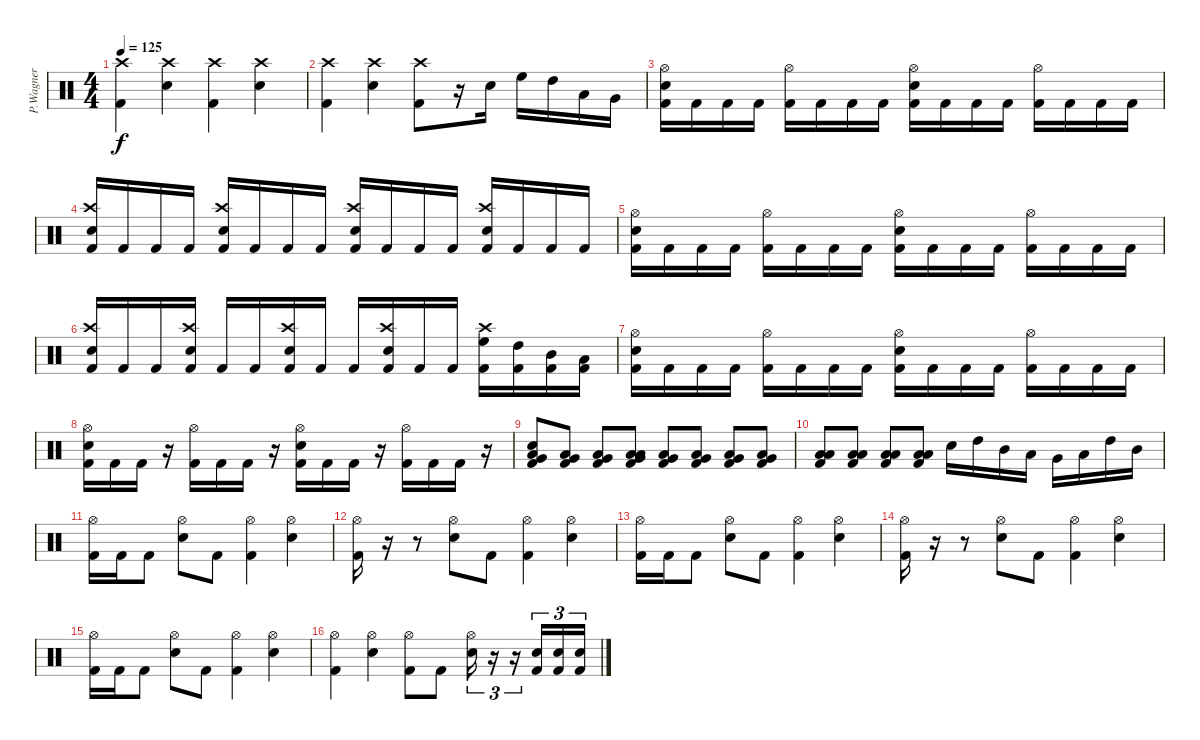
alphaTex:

\track ("P.Wagner" "P.Wagner") {instrument percussion}
\staff {score}
\articulation defaults
\ts (4 4)
\tempo 125
\clef neutral
\ks c
("Kick (hit) 2" "Crash high (hit)").4{dy f} ("Electric Snare (hit)" "Crash high (hit)").4 ("Kick (hit) 2" "Crash high (hit)").4 ("Electric Snare (hit)" "Crash high (hit)").4 |
("Kick (hit) 2" "Crash high (hit)").4 ("Electric Snare (hit)" "Crash high (hit)").4 ("Kick (hit) 2" "Crash high (hit)").8 r.16 "Electric Snare (hit)".16 "High Floor Tom (hit)".16 "High Tom (hit)".16 "Low Tom (hit)".16 "Very Low Tom (hit)".16 |
("Kick (hit) 2" "Electric Snare (hit)" "Hi-Hat (open)").16 "Kick (hit) 2".16 "Kick (hit) 2".16 "Kick (hit) 2".16 ("Kick (hit) 2" "Hi-Hat (open)").16 "Kick (hit) 2".16 "Kick (hit) 2".16 "Kick (hit) 2".16 ("Kick (hit) 2" "Electric Snare (hit)" "Hi-Hat (open)").16 "Kick (hit) 2".16 "Kick (hit) 2".16 "Kick (hit) 2".16 ("Kick (hit) 2" "Hi-Hat (open)").16 "Kick (hit) 2".16 "Kick (hit) 2".16 "Kick (hit) 2".16 |
("Kick (hit) 2" "Electric Snare (hit)" "Crash high (hit)").16 "Kick (hit) 2".16 "Kick (hit) 2".16 "Kick (hit) 2".16 ("Kick (hit) 2" "Electric Snare (hit)" "Crash high (hit)").16 "Kick (hit) 2".16 "Kick (hit) 2".16 "Kick (hit) 2".16 ("Kick (hit) 2" "Electric Snare (hit)" "Crash high (hit)").16 "Kick (hit) 2".16 "Kick (hit) 2".16 "Kick (hit) 2".16 ("Kick (hit) 2" "Electric Snare (hit)" "Crash high (hit)").16 "Kick (hit) 2".16 "Kick (hit) 2".16 "Kick (hit) 2".16 |
("Kick (hit) 2" "Electric Snare (hit)" "Hi-Hat (open)").16 "Kick (hit) 2".16 "Kick (hit) 2".16 "Kick (hit) 2".16 ("Kick (hit) 2" "Hi-Hat (open)").16 "Kick (hit) 2".16 "Kick (hit) 2".16 "Kick (hit) 2".16 ("Kick (hit) 2" "Electric Snare (hit)" "Hi-Hat (open)").16 "Kick (hit) 2".16 "Kick (hit) 2".16 "Kick (hit) 2".16 ("Kick (hit) 2" "Hi-Hat (open)").16 "Kick (hit) 2".16 "Kick (hit) 2".16 "Kick (hit) 2".16 |
("Kick (hit) 2" "Electric Snare (hit)" "Crash high (hit)").16 "Kick (hit) 2".16 "Kick (hit) 2".16 ("Kick (hit) 2" "Electric Snare (hit)" "Crash high (hit)").16 "Kick (hit) 2".16 "Kick (hit) 2".16 ("Kick (hit) 2" "Electric Snare (hit)" "Crash high (hit)").16 "Kick (hit) 2".16 "Kick (hit) 2".16 ("Kick (hit) 2" "Electric Snare (hit)" "Crash high (hit)").16 "Kick (hit) 2".16 "Kick (hit) 2".16 ("Kick (hit) 2" "High Floor Tom (hit)" "Crash high (hit)").16 ("Kick (hit) 2" "High Tom (hit)").16 ("Kick (hit) 2" "Mid Tom (hit)").16 ("Kick (hit) 2" "Low Tom (hit)").16 |
("Kick (hit) 2" "Electric Snare (hit)" "Hi-Hat (open)").16 "Kick (hit) 2".16 "Kick (hit) 2".16 "Kick (hit) 2".16 ("Kick (hit) 2" "Hi-Hat (open)").16 "Kick (hit) 2".16 "Kick (hit) 2".16 "Kick (hit) 2".16 ("Kick (hit) 2" "Electric Snare (hit)" "Hi-Hat (open)").16 "Kick (hit) 2".16 "Kick (hit) 2".16 "Kick (hit) 2".16 ("Kick (hit) 2" "Hi-Hat (open)").16 "Kick (hit) 2".16 "Kick (hit) 2".16 "Kick (hit) 2".16 |
("Kick (hit) 2" "Electric Snare (hit)" "Hi-Hat (open)").16 "Kick (hit) 2".16 "Kick (hit) 2".16 r.16 ("Kick (hit) 2" "Hi-Hat (open)").16 "Kick (hit) 2".16 "Kick (hit) 2".16 r.16 ("Kick (hit) 2" "Electric Snare (hit)" "Hi-Hat (open)").16 "Kick (hit) 2".16 "Kick (hit) 2".16 r.16 ("Kick (hit) 2" "Hi-Hat (open)").16 "Kick (hit) 2".16 "Kick (hit) 2".16 r.16 |
("Kick (hit) 2" "Snare (hit) 2" "Low Floor Tom (hit)" "Very Low Tom (hit)").8 ("Kick (hit) 2" "Low Floor Tom (hit)" "Very Low Tom (hit)").8 ("Kick (hit) 2" "Low Floor Tom (hit)" "Very Low Tom (hit)").8 ("Kick (hit) 2" "Low Floor Tom (hit)" "Very Low Tom (hit)" "Low Tom (hit)").8 ("Kick (hit) 2" "Very Low Tom (hit)" "Low Tom (hit)").8 ("Kick (hit) 2" "Very Low Tom (hit)" "Low Tom (hit)").8 ("Kick (hit) 2" "Very Low Tom (hit)" "Low Tom (hit)").8 ("Kick (hit) 2" "Very Low Tom (hit)" "Low Tom (hit)").8 |
("Kick (hit) 2" "Low Floor Tom (hit)" "Low Floor Tom (hit)").8 ("Kick (hit) 2" "Low Floor Tom (hit)" "Low Floor Tom (hit)").8 ("Kick (hit) 2" "Low Floor Tom (hit)" "Low Floor Tom (hit)").8 ("Kick (hit) 2" "Low Floor Tom (hit)" "Low Floor Tom (hit)").8 "Electric Snare (hit)".16 "High Tom (hit)".16 "Mid Tom (hit)".16 "Low Tom (hit)".16 "Very Low Tom (hit)".16 "Low Floor Tom (hit)".16 "High Tom (hit)".16 "Mid Tom (hit)".16 |
("Kick (hit) 2" "Hi-Hat (open)").16 "Kick (hit) 2".16 "Kick (hit) 2".8 ("Electric Snare (hit)" "Hi-Hat (open)").8 "Kick (hit) 2".8 ("Kick (hit) 2" "Hi-Hat (open)").4 ("Hi-Hat (open)" "Electric Snare (hit)").4 |
("Kick (hit) 2" "Hi-Hat (open)").16 r.16 r.8 ("Electric Snare (hit)" "Hi-Hat (open)").8 "Kick (hit) 2".8 ("Kick (hit) 2" "Hi-Hat (open)").4 ("Hi-Hat (open)" "Electric Snare (hit)").4 |
("Kick (hit) 2" "Hi-Hat (open)").16 "Kick (hit) 2".16 "Kick (hit) 2".8 ("Electric Snare (hit)" "Hi-Hat (open)").8 "Kick (hit) 2".8 ("Kick (hit) 2" "Hi-Hat (open)").4 ("Hi-Hat (open)" "Electric Snare (hit)").4 |
("Kick (hit) 2" "Hi-Hat (open)").16 r.16 r.8 ("Electric Snare (hit)" "Hi-Hat (open)").8 "Kick (hit) 2".8 ("Kick (hit) 2" "Hi-Hat (open)").4 ("Hi-Hat (open)" "Electric Snare (hit)").4 |
("Kick (hit) 2" "Hi-Hat (open)").16 "Kick (hit) 2".16 "Kick (hit) 2".8 ("Electric Snare (hit)" "Hi-Hat (open)").8 "Kick (hit) 2".8 ("Kick (hit) 2" "Hi-Hat (open)").4 ("Hi-Hat (open)" "Electric Snare (hit)").4 |
("Kick (hit) 2" "Hi-Hat (open)").4 ("Electric Snare (hit)" "Hi-Hat (open)").4 ("Kick (hit) 2" "Hi-Hat (open)").8 "Kick (hit) 2".8 ("Electric Snare (hit)" "Hi-Hat (open)").16{tu (3 2)} r.16{tu (3 2)} r.16{tu (3 2)} ("Electric Snare (hit)" "Kick (hit) 2").16{tu (3 2)} ("Electric Snare (hit)" "Kick (hit) 2").16{tu (3 2)} ("Electric Snare (hit)" "Kick (hit) 2").16{tu (3 2)}
